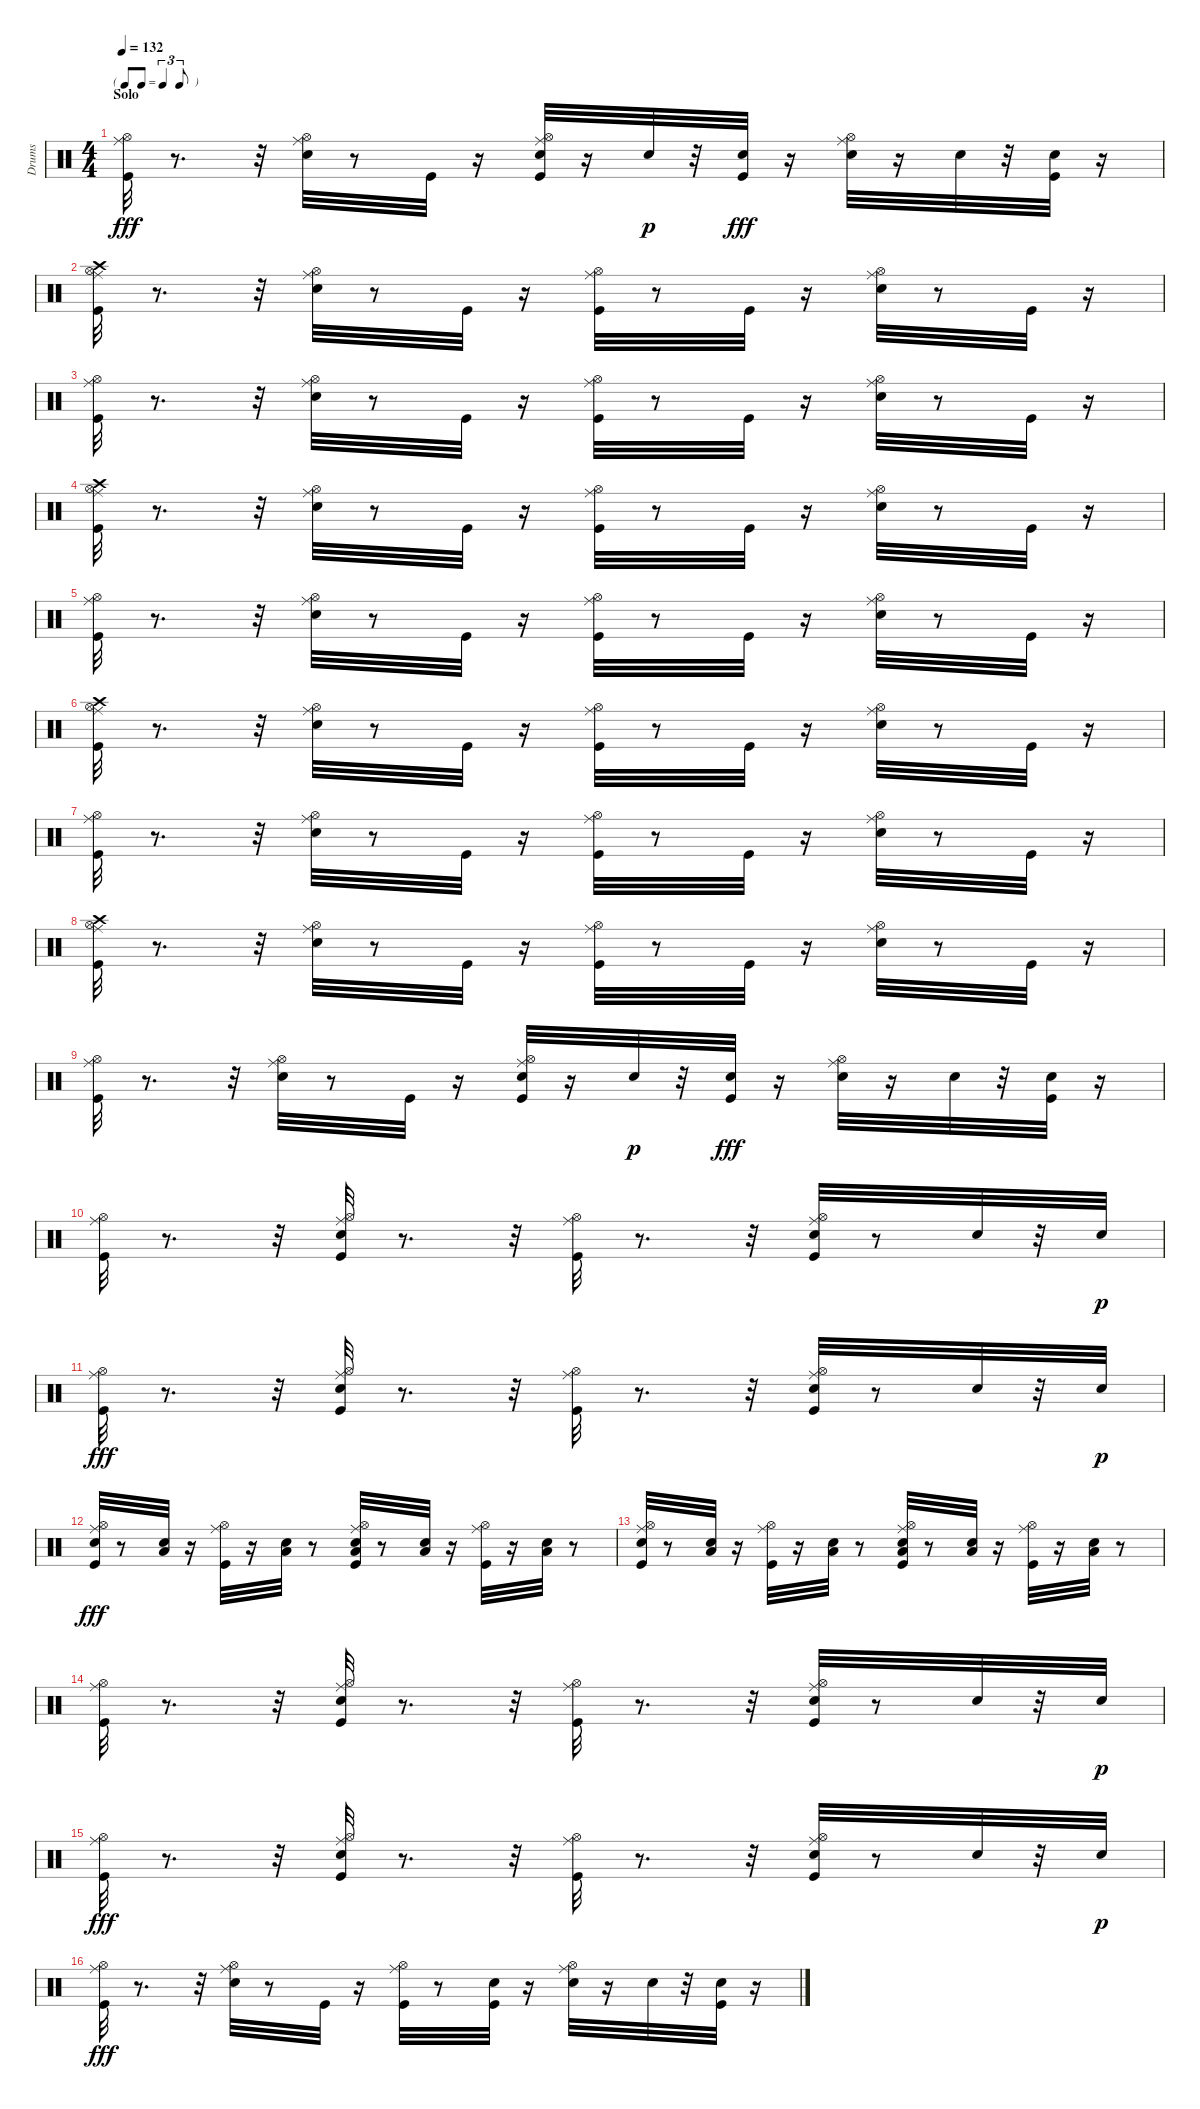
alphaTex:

\track ("Drums" "Drums") {instrument percussion}
\staff {score}
\articulation defaults
\ts (4 4)
\tf triplet8th
\section ("" "Solo")
\tempo 132
\clef neutral
\ks c
("Kick (hit)" "Ride (middle)" "Hi-Hat (open)").32{dy fff} r.8{d} r.32 ("Snare (hit) 2" "Ride (middle)" "Hi-Hat (open)").32 r.8 "Kick (hit)".32 r.16 ("Snare (hit) 2" "Kick (hit)" "Ride (middle)" "Hi-Hat (open)").32 r.16 "Snare (hit) 2".32{dy p} r.32 ("Snare (hit) 2" "Kick (hit)").32{dy fff} r.16 ("Snare (hit) 2" "Ride (middle)" "Hi-Hat (open)").32 r.16 "Snare (hit) 2".32 r.32 ("Snare (hit) 2" "Kick (hit)").32 r.16 |
("Kick (hit)" "Crash high (hit)" "Ride (middle)" "Hi-Hat (open)").32 r.8{d} r.32 ("Snare (hit) 2" "Ride (middle)" "Hi-Hat (open)").32 r.8 "Kick (hit)".32 r.16 ("Kick (hit)" "Ride (middle)" "Hi-Hat (open)").32 r.8 "Kick (hit)".32 r.16 ("Snare (hit) 2" "Ride (middle)" "Hi-Hat (open)").32 r.8 "Kick (hit)".32 r.16 |
("Kick (hit)" "Ride (middle)" "Hi-Hat (open)").32 r.8{d} r.32 ("Snare (hit) 2" "Ride (middle)" "Hi-Hat (open)").32 r.8 "Kick (hit)".32 r.16 ("Kick (hit)" "Ride (middle)" "Hi-Hat (open)").32 r.8 "Kick (hit)".32 r.16 ("Snare (hit) 2" "Ride (middle)" "Hi-Hat (open)").32 r.8 "Kick (hit)".32 r.16 |
("Kick (hit)" "Crash high (hit)" "Ride (middle)" "Hi-Hat (open)").32 r.8{d} r.32 ("Snare (hit) 2" "Ride (middle)" "Hi-Hat (open)").32 r.8 "Kick (hit)".32 r.16 ("Kick (hit)" "Ride (middle)" "Hi-Hat (open)").32 r.8 "Kick (hit)".32 r.16 ("Snare (hit) 2" "Ride (middle)" "Hi-Hat (open)").32 r.8 "Kick (hit)".32 r.16 |
("Kick (hit)" "Ride (middle)" "Hi-Hat (open)").32 r.8{d} r.32 ("Snare (hit) 2" "Ride (middle)" "Hi-Hat (open)").32 r.8 "Kick (hit)".32 r.16 ("Kick (hit)" "Ride (middle)" "Hi-Hat (open)").32 r.8 "Kick (hit)".32 r.16 ("Snare (hit) 2" "Ride (middle)" "Hi-Hat (open)").32 r.8 "Kick (hit)".32 r.16 |
("Kick (hit)" "Crash high (hit)" "Ride (middle)" "Hi-Hat (open)").32 r.8{d} r.32 ("Snare (hit) 2" "Ride (middle)" "Hi-Hat (open)").32 r.8 "Kick (hit)".32 r.16 ("Kick (hit)" "Ride (middle)" "Hi-Hat (open)").32 r.8 "Kick (hit)".32 r.16 ("Snare (hit) 2" "Ride (middle)" "Hi-Hat (open)").32 r.8 "Kick (hit)".32 r.16 |
("Kick (hit)" "Ride (middle)" "Hi-Hat (open)").32 r.8{d} r.32 ("Snare (hit) 2" "Ride (middle)" "Hi-Hat (open)").32 r.8 "Kick (hit)".32 r.16 ("Kick (hit)" "Ride (middle)" "Hi-Hat (open)").32 r.8 "Kick (hit)".32 r.16 ("Snare (hit) 2" "Ride (middle)" "Hi-Hat (open)").32 r.8 "Kick (hit)".32 r.16 |
("Kick (hit)" "Crash high (hit)" "Ride (middle)" "Hi-Hat (open)").32 r.8{d} r.32 ("Snare (hit) 2" "Ride (middle)" "Hi-Hat (open)").32 r.8 "Kick (hit)".32 r.16 ("Kick (hit)" "Ride (middle)" "Hi-Hat (open)").32 r.8 "Kick (hit)".32 r.16 ("Snare (hit) 2" "Ride (middle)" "Hi-Hat (open)").32 r.8 "Kick (hit)".32 r.16 |
("Kick (hit)" "Ride (middle)" "Hi-Hat (open)").32 r.8{d} r.32 ("Snare (hit) 2" "Ride (middle)" "Hi-Hat (open)").32 r.8 "Kick (hit)".32 r.16 ("Snare (hit) 2" "Kick (hit)" "Ride (middle)" "Hi-Hat (open)").32 r.16 "Snare (hit) 2".32{dy p} r.32 ("Snare (hit) 2" "Kick (hit)").32{dy fff} r.16 ("Snare (hit) 2" "Ride (middle)" "Hi-Hat (open)").32 r.16 "Snare (hit) 2".32 r.32 ("Snare (hit) 2" "Kick (hit)").32 r.16 |
("Kick (hit)" "Ride (middle)" "Hi-Hat (open)").32 r.8{d} r.32 ("Snare (hit) 2" "Kick (hit)" "Ride (middle)" "Hi-Hat (open)").32 r.8{d} r.32 ("Kick (hit)" "Ride (middle)" "Hi-Hat (open)").32 r.8{d} r.32 ("Snare (hit) 2" "Kick (hit)" "Ride (middle)" "Hi-Hat (open)").32 r.8 "Snare (hit) 2".32 r.32 "Snare (hit) 2".32{dy p} |
("Kick (hit)" "Ride (middle)" "Hi-Hat (open)").32{dy fff} r.8{d} r.32 ("Snare (hit) 2" "Kick (hit)" "Ride (middle)" "Hi-Hat (open)").32 r.8{d} r.32 ("Kick (hit)" "Ride (middle)" "Hi-Hat (open)").32 r.8{d} r.32 ("Snare (hit) 2" "Kick (hit)" "Ride (middle)" "Hi-Hat (open)").32 r.8 "Snare (hit) 2".32 r.32 "Snare (hit) 2".32{dy p} |
("Snare (hit) 2" "Kick (hit)" "Ride (middle)" "Hi-Hat (open)").32{dy fff} r.8 ("Snare (hit) 2" "Low Tom (hit)").32 r.16 ("Kick (hit)" "Ride (middle)" "Hi-Hat (open)").32 r.16 ("Snare (hit) 2" "Low Tom (hit)").32 r.8 ("Snare (hit) 2" "Low Tom (hit)" "Kick (hit)" "Ride (middle)" "Hi-Hat (open)").32 r.8 ("Snare (hit) 2" "Low Tom (hit)").32 r.16 ("Kick (hit)" "Ride (middle)" "Hi-Hat (open)").32 r.16 ("Snare (hit) 2" "Low Tom (hit)").32 r.8 |
("Snare (hit) 2" "Kick (hit)" "Ride (middle)" "Hi-Hat (open)").32 r.8 ("Snare (hit) 2" "Low Tom (hit)").32 r.16 ("Kick (hit)" "Ride (middle)" "Hi-Hat (open)").32 r.16 ("Snare (hit) 2" "Low Tom (hit)").32 r.8 ("Snare (hit) 2" "Low Tom (hit)" "Kick (hit)" "Ride (middle)" "Hi-Hat (open)").32 r.8 ("Snare (hit) 2" "Low Tom (hit)").32 r.16 ("Kick (hit)" "Ride (middle)" "Hi-Hat (open)").32 r.16 ("Snare (hit) 2" "Low Tom (hit)").32 r.8 |
("Kick (hit)" "Ride (middle)" "Hi-Hat (open)").32 r.8{d} r.32 ("Snare (hit) 2" "Kick (hit)" "Ride (middle)" "Hi-Hat (open)").32 r.8{d} r.32 ("Kick (hit)" "Ride (middle)" "Hi-Hat (open)").32 r.8{d} r.32 ("Snare (hit) 2" "Kick (hit)" "Ride (middle)" "Hi-Hat (open)").32 r.8 "Snare (hit) 2".32 r.32 "Snare (hit) 2".32{dy p} |
("Kick (hit)" "Ride (middle)" "Hi-Hat (open)").32{dy fff} r.8{d} r.32 ("Snare (hit) 2" "Kick (hit)" "Ride (middle)" "Hi-Hat (open)").32 r.8{d} r.32 ("Kick (hit)" "Ride (middle)" "Hi-Hat (open)").32 r.8{d} r.32 ("Snare (hit) 2" "Kick (hit)" "Ride (middle)" "Hi-Hat (open)").32 r.8 "Snare (hit) 2".32 r.32 "Snare (hit) 2".32{dy p} |
("Kick (hit)" "Ride (middle)" "Hi-Hat (open)").32{dy fff} r.8{d} r.32 ("Snare (hit) 2" "Ride (middle)" "Hi-Hat (open)").32 r.8 "Kick (hit)".32 r.16 ("Kick (hit)" "Ride (middle)" "Hi-Hat (open)").32 r.8 ("Snare (hit) 2" "Kick (hit)").32 r.16 ("Snare (hit) 2" "Ride (middle)" "Hi-Hat (open)").32 r.16 "Snare (hit) 2".32 r.32 ("Snare (hit) 2" "Kick (hit)").32 r.16
